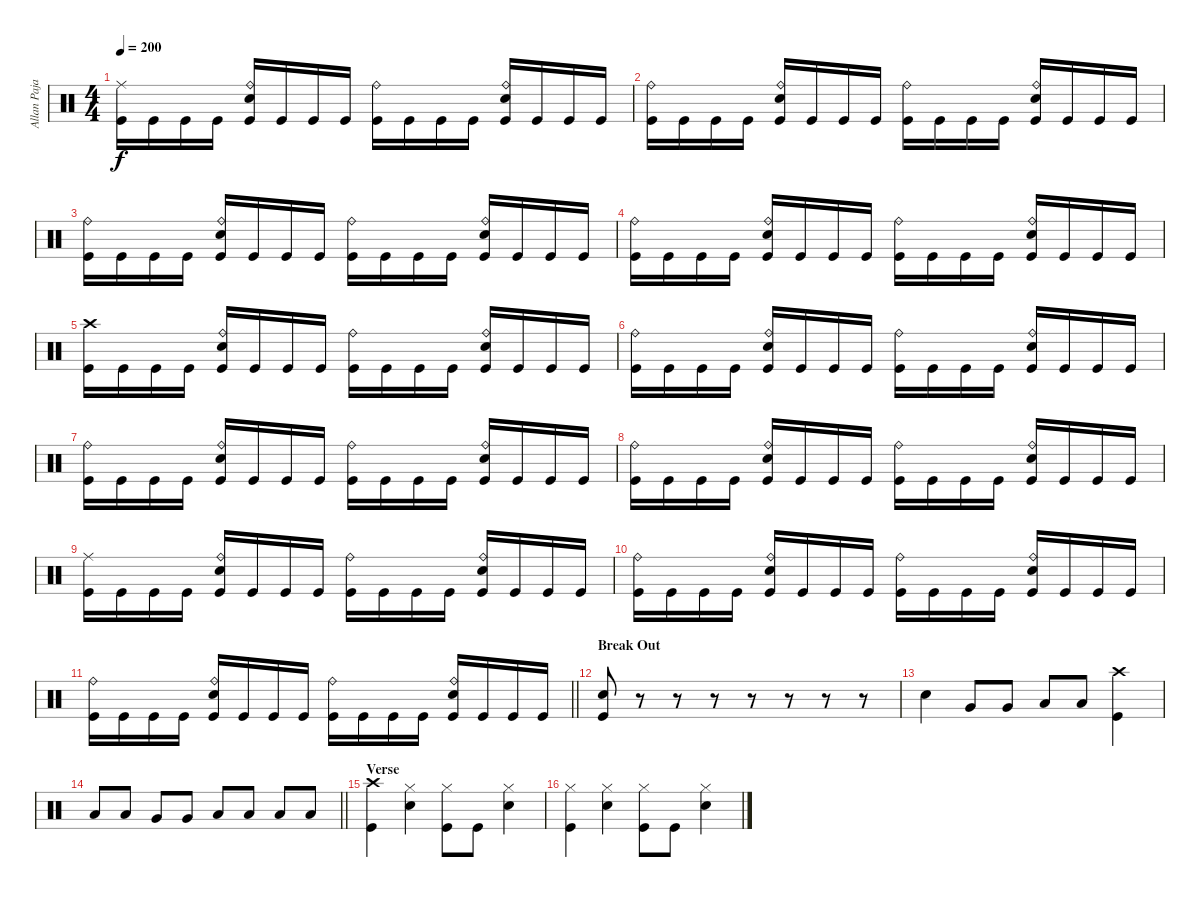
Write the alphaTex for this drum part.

\track ("Allan Pajarin (Drums)" "Allan Paja") {instrument percussion}
\staff {score}
\articulation defaults
\ts (4 4)
\tempo 200
\clef neutral
\ks c
("Ride (middle)" "Kick (hit)").16{dy f} "Kick (hit)".16 "Kick (hit)".16 "Kick (hit)".16 ("Ride (bell)" "Electric Snare (hit)" "Kick (hit)").16 "Kick (hit)".16 "Kick (hit)".16 "Kick (hit)".16 ("Ride (bell)" "Kick (hit)").16 "Kick (hit)".16 "Kick (hit)".16 "Kick (hit)".16 ("Ride (bell)" "Electric Snare (hit)" "Kick (hit)").16 "Kick (hit)".16 "Kick (hit)".16 "Kick (hit)".16 |
("Ride (bell)" "Kick (hit)").16 "Kick (hit)".16 "Kick (hit)".16 "Kick (hit)".16 ("Ride (bell)" "Electric Snare (hit)" "Kick (hit)").16 "Kick (hit)".16 "Kick (hit)".16 "Kick (hit)".16 ("Ride (bell)" "Kick (hit)").16 "Kick (hit)".16 "Kick (hit)".16 "Kick (hit)".16 ("Ride (bell)" "Electric Snare (hit)" "Kick (hit)").16 "Kick (hit)".16 "Kick (hit)".16 "Kick (hit)".16 |
("Ride (bell)" "Kick (hit)").16 "Kick (hit)".16 "Kick (hit)".16 "Kick (hit)".16 ("Ride (bell)" "Electric Snare (hit)" "Kick (hit)").16 "Kick (hit)".16 "Kick (hit)".16 "Kick (hit)".16 ("Ride (bell)" "Kick (hit)").16 "Kick (hit)".16 "Kick (hit)".16 "Kick (hit)".16 ("Ride (bell)" "Electric Snare (hit)" "Kick (hit)").16 "Kick (hit)".16 "Kick (hit)".16 "Kick (hit)".16 |
("Ride (bell)" "Kick (hit)").16 "Kick (hit)".16 "Kick (hit)".16 "Kick (hit)".16 ("Ride (bell)" "Electric Snare (hit)" "Kick (hit)").16 "Kick (hit)".16 "Kick (hit)".16 "Kick (hit)".16 ("Ride (bell)" "Kick (hit)").16 "Kick (hit)".16 "Kick (hit)".16 "Kick (hit)".16 ("Ride (bell)" "Electric Snare (hit)" "Kick (hit)").16 "Kick (hit)".16 "Kick (hit)".16 "Kick (hit)".16 |
("Crash high (hit)" "Kick (hit)").16 "Kick (hit)".16 "Kick (hit)".16 "Kick (hit)".16 ("Ride (bell)" "Electric Snare (hit)" "Kick (hit)").16 "Kick (hit)".16 "Kick (hit)".16 "Kick (hit)".16 ("Ride (bell)" "Kick (hit)").16 "Kick (hit)".16 "Kick (hit)".16 "Kick (hit)".16 ("Ride (bell)" "Electric Snare (hit)" "Kick (hit)").16 "Kick (hit)".16 "Kick (hit)".16 "Kick (hit)".16 |
("Ride (bell)" "Kick (hit)").16 "Kick (hit)".16 "Kick (hit)".16 "Kick (hit)".16 ("Ride (bell)" "Electric Snare (hit)" "Kick (hit)").16 "Kick (hit)".16 "Kick (hit)".16 "Kick (hit)".16 ("Ride (bell)" "Kick (hit)").16 "Kick (hit)".16 "Kick (hit)".16 "Kick (hit)".16 ("Ride (bell)" "Electric Snare (hit)" "Kick (hit)").16 "Kick (hit)".16 "Kick (hit)".16 "Kick (hit)".16 |
("Ride (bell)" "Kick (hit)").16 "Kick (hit)".16 "Kick (hit)".16 "Kick (hit)".16 ("Ride (bell)" "Electric Snare (hit)" "Kick (hit)").16 "Kick (hit)".16 "Kick (hit)".16 "Kick (hit)".16 ("Ride (bell)" "Kick (hit)").16 "Kick (hit)".16 "Kick (hit)".16 "Kick (hit)".16 ("Ride (bell)" "Electric Snare (hit)" "Kick (hit)").16 "Kick (hit)".16 "Kick (hit)".16 "Kick (hit)".16 |
("Ride (bell)" "Kick (hit)").16 "Kick (hit)".16 "Kick (hit)".16 "Kick (hit)".16 ("Ride (bell)" "Electric Snare (hit)" "Kick (hit)").16 "Kick (hit)".16 "Kick (hit)".16 "Kick (hit)".16 ("Ride (bell)" "Kick (hit)").16 "Kick (hit)".16 "Kick (hit)".16 "Kick (hit)".16 ("Ride (bell)" "Electric Snare (hit)" "Kick (hit)").16 "Kick (hit)".16 "Kick (hit)".16 "Kick (hit)".16 |
("Ride (middle)" "Kick (hit)").16 "Kick (hit)".16 "Kick (hit)".16 "Kick (hit)".16 ("Ride (bell)" "Electric Snare (hit)" "Kick (hit)").16 "Kick (hit)".16 "Kick (hit)".16 "Kick (hit)".16 ("Ride (bell)" "Kick (hit)").16 "Kick (hit)".16 "Kick (hit)".16 "Kick (hit)".16 ("Ride (bell)" "Electric Snare (hit)" "Kick (hit)").16 "Kick (hit)".16 "Kick (hit)".16 "Kick (hit)".16 |
("Ride (bell)" "Kick (hit)").16 "Kick (hit)".16 "Kick (hit)".16 "Kick (hit)".16 ("Ride (bell)" "Electric Snare (hit)" "Kick (hit)").16 "Kick (hit)".16 "Kick (hit)".16 "Kick (hit)".16 ("Ride (bell)" "Kick (hit)").16 "Kick (hit)".16 "Kick (hit)".16 "Kick (hit)".16 ("Ride (bell)" "Electric Snare (hit)" "Kick (hit)").16 "Kick (hit)".16 "Kick (hit)".16 "Kick (hit)".16 |
\barLineRight lightlight
("Ride (bell)" "Kick (hit)").16 "Kick (hit)".16 "Kick (hit)".16 "Kick (hit)".16 ("Ride (bell)" "Electric Snare (hit)" "Kick (hit)").16 "Kick (hit)".16 "Kick (hit)".16 "Kick (hit)".16 ("Ride (bell)" "Kick (hit)").16 "Kick (hit)".16 "Kick (hit)".16 "Kick (hit)".16 ("Ride (bell)" "Electric Snare (hit)" "Kick (hit)").16 "Kick (hit)".16 "Kick (hit)".16 "Kick (hit)".16 |
\section ("" "Break Out")
("Electric Snare (hit)" "Kick (hit)").8 r.8 r.8 r.8 r.8 r.8 r.8 r.8 |
"Electric Snare (hit)".4 "Very Low Tom (hit)".8 "Very Low Tom (hit)".8 "Low Floor Tom (hit)".8 "Low Floor Tom (hit)".8 ("Crash high (hit)" "Kick (hit)").4 |
\barLineRight lightlight "Low Tom (hit)".8 "Low Tom (hit)".8 "Very Low Tom (hit)".8 "Very Low Tom (hit)".8 "Low Floor Tom (hit)".8 "Low Floor Tom (hit)".8 "Low Floor Tom (hit)".8 "Low Floor Tom (hit)".8
|
\section ("" "Verse")
("Crash high (hit)" "Kick (hit)").4 ("Hi-Hat (closed)" "Electric Snare (hit)").4 ("Hi-Hat (closed)" "Kick (hit)").8 "Kick (hit)".8 ("Hi-Hat (closed)" "Electric Snare (hit)").4 |
("Hi-Hat (closed)" "Kick (hit)").4 ("Hi-Hat (closed)" "Electric Snare (hit)").4 ("Hi-Hat (closed)" "Kick (hit)").8 "Kick (hit)".8 ("Hi-Hat (closed)" "Electric Snare (hit)").4
